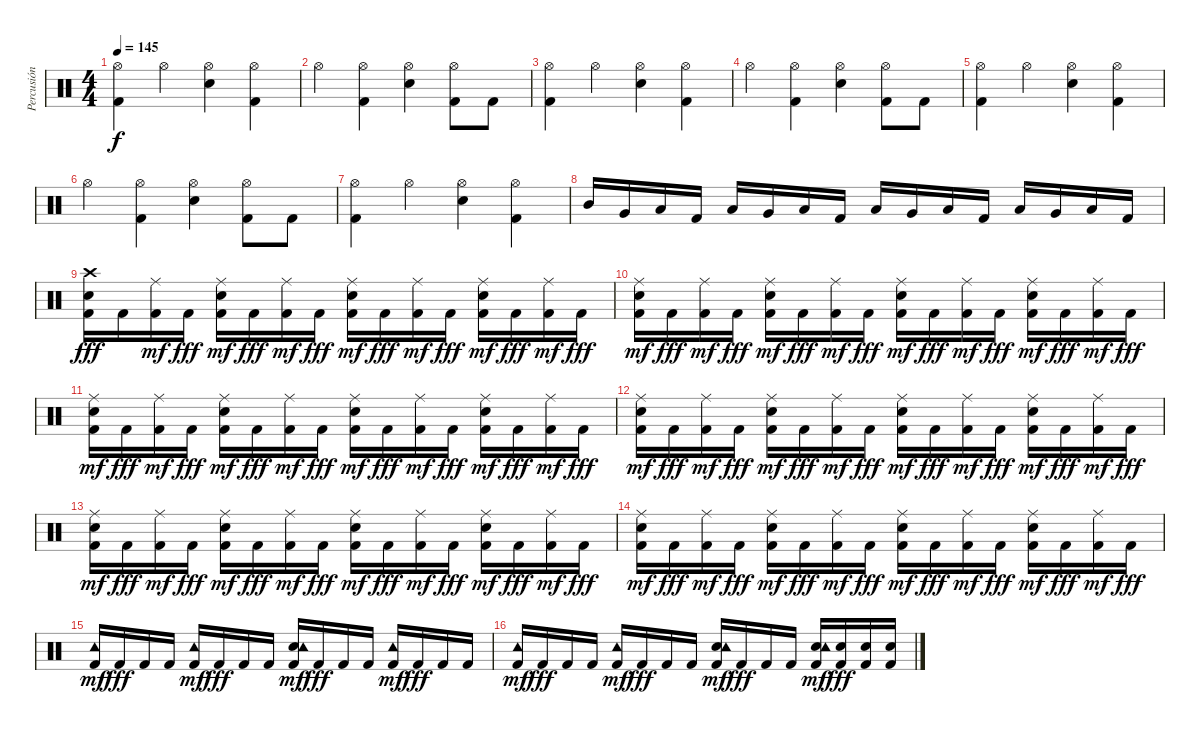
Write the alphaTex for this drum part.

\track ("Percusión" "Percusión") {instrument percussion}
\staff {score}
\articulation defaults
\ts (4 4)
\tempo 145
\clef neutral
\ks c
("Kick (hit) 2" "Hi-Hat (open)").4{dy f} "Hi-Hat (open)".4 ("Snare (hit) 2" "Hi-Hat (open)").4 ("Kick (hit) 2" "Hi-Hat (open)").4 |
"Hi-Hat (open)".4 ("Kick (hit) 2" "Hi-Hat (open)").4 ("Snare (hit) 2" "Hi-Hat (open)").4 ("Kick (hit) 2" "Hi-Hat (open)").8 "Kick (hit) 2".8 |
("Kick (hit) 2" "Hi-Hat (open)").4 "Hi-Hat (open)".4 ("Snare (hit) 2" "Hi-Hat (open)").4 ("Kick (hit) 2" "Hi-Hat (open)").4 |
"Hi-Hat (open)".4 ("Kick (hit) 2" "Hi-Hat (open)").4 ("Snare (hit) 2" "Hi-Hat (open)").4 ("Kick (hit) 2" "Hi-Hat (open)").8 "Kick (hit) 2".8 |
("Kick (hit) 2" "Hi-Hat (open)").4 "Hi-Hat (open)".4 ("Snare (hit) 2" "Hi-Hat (open)").4 ("Kick (hit) 2" "Hi-Hat (open)").4 |
"Hi-Hat (open)".4 ("Kick (hit) 2" "Hi-Hat (open)").4 ("Snare (hit) 2" "Hi-Hat (open)").4 ("Kick (hit) 2" "Hi-Hat (open)").8 "Kick (hit) 2".8 |
("Kick (hit) 2" "Hi-Hat (open)").4 "Hi-Hat (open)".4 ("Snare (hit) 2" "Hi-Hat (open)").4 ("Kick (hit) 2" "Hi-Hat (open)").4 |
"Mid Tom (hit)".16 "Very Low Tom (hit)".16 "Low Floor Tom (hit)".16 "Kick (hit) 2".16 "Low Tom (hit)".16 "Very Low Tom (hit)".16 "Low Floor Tom (hit)".16 "Kick (hit) 2".16 "Low Tom (hit)".16 "Very Low Tom (hit)".16 "Low Floor Tom (hit)".16 "Kick (hit) 2".16 "Low Tom (hit)".16 "Very Low Tom (hit)".16 "Low Floor Tom (hit)".16 "Kick (hit) 2".16 |
("Kick (hit) 2" "Snare (hit) 2" "Crash high (hit)").16{dy fff} "Kick (hit) 2".16 ("Kick (hit) 2" "Ride (middle)").16{dy mf} "Kick (hit) 2".16{dy fff} ("Kick (hit) 2" "Snare (hit) 2" "Ride (middle)").16{dy mf} "Kick (hit) 2".16{dy fff} ("Kick (hit) 2" "Ride (middle)").16{dy mf} "Kick (hit) 2".16{dy fff} ("Kick (hit) 2" "Snare (hit) 2" "Ride (middle)").16{dy mf} "Kick (hit) 2".16{dy fff} ("Kick (hit) 2" "Ride (middle)").16{dy mf} "Kick (hit) 2".16{dy fff} ("Kick (hit) 2" "Snare (hit) 2" "Ride (middle)").16{dy mf} "Kick (hit) 2".16{dy fff} ("Kick (hit) 2" "Ride (middle)").16{dy mf} "Kick (hit) 2".16{dy fff} |
("Kick (hit) 2" "Snare (hit) 2" "Ride (middle)").16{dy mf} "Kick (hit) 2".16{dy fff} ("Kick (hit) 2" "Ride (middle)").16{dy mf} "Kick (hit) 2".16{dy fff} ("Kick (hit) 2" "Snare (hit) 2" "Ride (middle)").16{dy mf} "Kick (hit) 2".16{dy fff} ("Kick (hit) 2" "Ride (middle)").16{dy mf} "Kick (hit) 2".16{dy fff} ("Kick (hit) 2" "Snare (hit) 2" "Ride (middle)").16{dy mf} "Kick (hit) 2".16{dy fff} ("Kick (hit) 2" "Ride (middle)").16{dy mf} "Kick (hit) 2".16{dy fff} ("Kick (hit) 2" "Snare (hit) 2" "Ride (middle)").16{dy mf} "Kick (hit) 2".16{dy fff} ("Kick (hit) 2" "Ride (middle)").16{dy mf} "Kick (hit) 2".16{dy fff} |
("Kick (hit) 2" "Snare (hit) 2" "Ride (middle)").16{dy mf} "Kick (hit) 2".16{dy fff} ("Kick (hit) 2" "Ride (middle)").16{dy mf} "Kick (hit) 2".16{dy fff} ("Kick (hit) 2" "Snare (hit) 2" "Ride (middle)").16{dy mf} "Kick (hit) 2".16{dy fff} ("Kick (hit) 2" "Ride (middle)").16{dy mf} "Kick (hit) 2".16{dy fff} ("Kick (hit) 2" "Snare (hit) 2" "Ride (middle)").16{dy mf} "Kick (hit) 2".16{dy fff} ("Kick (hit) 2" "Ride (middle)").16{dy mf} "Kick (hit) 2".16{dy fff} ("Kick (hit) 2" "Snare (hit) 2" "Ride (middle)").16{dy mf} "Kick (hit) 2".16{dy fff} ("Kick (hit) 2" "Ride (middle)").16{dy mf} "Kick (hit) 2".16{dy fff} |
("Kick (hit) 2" "Snare (hit) 2" "Ride (middle)").16{dy mf} "Kick (hit) 2".16{dy fff} ("Kick (hit) 2" "Ride (middle)").16{dy mf} "Kick (hit) 2".16{dy fff} ("Kick (hit) 2" "Snare (hit) 2" "Ride (middle)").16{dy mf} "Kick (hit) 2".16{dy fff} ("Kick (hit) 2" "Ride (middle)").16{dy mf} "Kick (hit) 2".16{dy fff} ("Kick (hit) 2" "Snare (hit) 2" "Ride (middle)").16{dy mf} "Kick (hit) 2".16{dy fff} ("Kick (hit) 2" "Ride (middle)").16{dy mf} "Kick (hit) 2".16{dy fff} ("Kick (hit) 2" "Snare (hit) 2" "Ride (middle)").16{dy mf} "Kick (hit) 2".16{dy fff} ("Kick (hit) 2" "Ride (middle)").16{dy mf} "Kick (hit) 2".16{dy fff} |
("Kick (hit) 2" "Snare (hit) 2" "Ride (middle)").16{dy mf} "Kick (hit) 2".16{dy fff} ("Kick (hit) 2" "Ride (middle)").16{dy mf} "Kick (hit) 2".16{dy fff} ("Kick (hit) 2" "Snare (hit) 2" "Ride (middle)").16{dy mf} "Kick (hit) 2".16{dy fff} ("Kick (hit) 2" "Ride (middle)").16{dy mf} "Kick (hit) 2".16{dy fff} ("Kick (hit) 2" "Snare (hit) 2" "Ride (middle)").16{dy mf} "Kick (hit) 2".16{dy fff} ("Kick (hit) 2" "Ride (middle)").16{dy mf} "Kick (hit) 2".16{dy fff} ("Kick (hit) 2" "Snare (hit) 2" "Ride (middle)").16{dy mf} "Kick (hit) 2".16{dy fff} ("Kick (hit) 2" "Ride (middle)").16{dy mf} "Kick (hit) 2".16{dy fff} |
("Kick (hit) 2" "Snare (hit) 2" "Ride (middle)").16{dy mf} "Kick (hit) 2".16{dy fff} ("Kick (hit) 2" "Ride (middle)").16{dy mf} "Kick (hit) 2".16{dy fff} ("Kick (hit) 2" "Snare (hit) 2" "Ride (middle)").16{dy mf} "Kick (hit) 2".16{dy fff} ("Kick (hit) 2" "Ride (middle)").16{dy mf} "Kick (hit) 2".16{dy fff} ("Kick (hit) 2" "Snare (hit) 2" "Ride (middle)").16{dy mf} "Kick (hit) 2".16{dy fff} ("Kick (hit) 2" "Ride (middle)").16{dy mf} "Kick (hit) 2".16{dy fff} ("Kick (hit) 2" "Snare (hit) 2" "Ride (middle)").16{dy mf} "Kick (hit) 2".16{dy fff} ("Kick (hit) 2" "Ride (middle)").16{dy mf} "Kick (hit) 2".16{dy fff} |
("Kick (hit) 2" "Tambourine (hit)").16{dy mf} "Kick (hit) 2".16{dy fff} "Kick (hit) 2".16 "Kick (hit) 2".16 ("Kick (hit) 2" "Tambourine (hit)").16{dy mf} "Kick (hit) 2".16{dy fff} "Kick (hit) 2".16 "Kick (hit) 2".16 ("Kick (hit) 2" "Snare (hit) 2" "Tambourine (hit)").16{dy mf} "Kick (hit) 2".16{dy fff} "Kick (hit) 2".16 "Kick (hit) 2".16 ("Kick (hit) 2" "Tambourine (hit)").16{dy mf} "Kick (hit) 2".16{dy fff} "Kick (hit) 2".16 "Kick (hit) 2".16 |
("Kick (hit) 2" "Tambourine (hit)").16{dy mf} "Kick (hit) 2".16{dy fff} "Kick (hit) 2".16 "Kick (hit) 2".16 ("Kick (hit) 2" "Tambourine (hit)").16{dy mf} "Kick (hit) 2".16{dy fff} "Kick (hit) 2".16 "Kick (hit) 2".16 ("Kick (hit) 2" "Snare (hit) 2" "Tambourine (hit)").16{dy mf} "Kick (hit) 2".16{dy fff} "Kick (hit) 2".16 "Kick (hit) 2".16 ("Kick (hit) 2" "Snare (hit) 2" "Tambourine (hit)").16{dy mf} ("Kick (hit) 2" "Snare (hit) 2").16{dy fff} ("Kick (hit) 2" "Snare (hit) 2").16 ("Kick (hit) 2" "Snare (hit) 2").16
